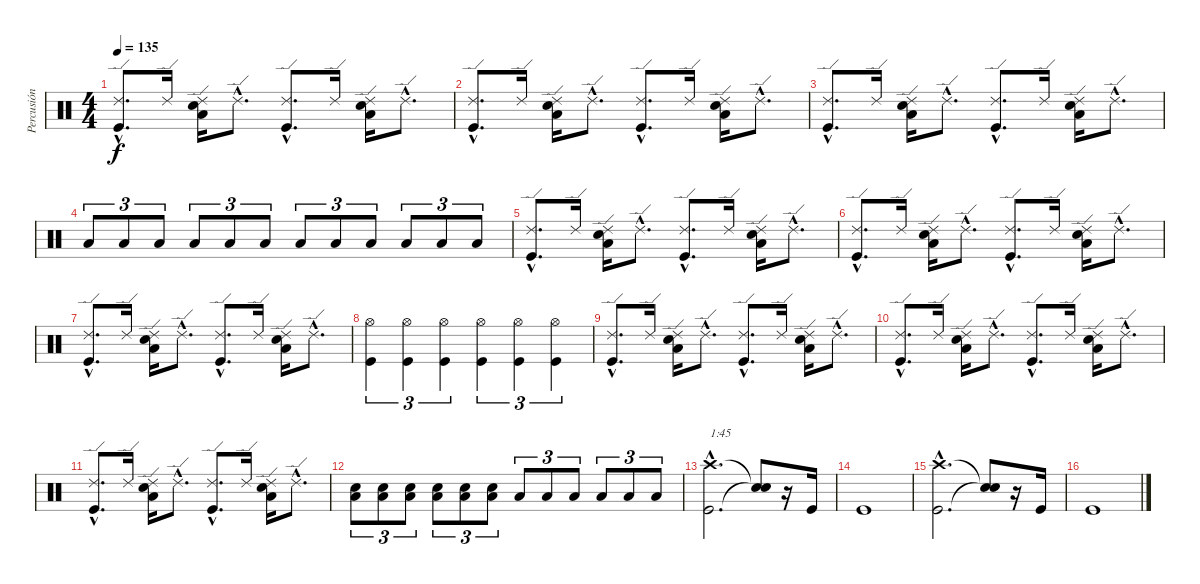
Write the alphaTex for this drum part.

\track ("Percusión" "Percusión") {instrument percussion}
\staff {score}
\articulation defaults
\ts (4 4)
\tempo 135
\clef neutral
\ks c
("Kick (hit)"{hac} "Ride (edge) 2"{hac}).8{d dy f} "Ride (edge) 2".16 ("Snare (hit) 2" "Low Tom (hit)" "Ride (edge) 2").16 "Ride (edge) 2"{hac}.8{d} ("Kick (hit)"{hac} "Ride (edge) 2"{hac}).8{d} "Ride (edge) 2".16 ("Snare (hit) 2" "Low Tom (hit)" "Ride (edge) 2").16 "Ride (edge) 2"{hac}.8{d} |
("Kick (hit)"{hac} "Ride (edge) 2"{hac}).8{d} "Ride (edge) 2".16 ("Snare (hit) 2" "Low Tom (hit)" "Ride (edge) 2").16 "Ride (edge) 2"{hac}.8{d} ("Kick (hit)"{hac} "Ride (edge) 2"{hac}).8{d} "Ride (edge) 2".16 ("Snare (hit) 2" "Low Tom (hit)" "Ride (edge) 2").16 "Ride (edge) 2"{hac}.8{d} |
("Kick (hit)"{hac} "Ride (edge) 2"{hac}).8{d} "Ride (edge) 2".16 ("Snare (hit) 2" "Low Tom (hit)" "Ride (edge) 2").16 "Ride (edge) 2"{hac}.8{d} ("Kick (hit)"{hac} "Ride (edge) 2"{hac}).8{d} "Ride (edge) 2".16 ("Snare (hit) 2" "Low Tom (hit)" "Ride (edge) 2").16 "Ride (edge) 2"{hac}.8{d} |
"Low Tom (hit)".8{tu (3 2)} "Low Tom (hit)".8{tu (3 2)} "Low Tom (hit)".8{tu (3 2)} "Low Tom (hit)".8{tu (3 2)} "Low Tom (hit)".8{tu (3 2)} "Low Tom (hit)".8{tu (3 2)} "Low Tom (hit)".8{tu (3 2)} "Low Tom (hit)".8{tu (3 2)} "Low Tom (hit)".8{tu (3 2)} "Low Tom (hit)".8{tu (3 2)} "Low Tom (hit)".8{tu (3 2)} "Low Tom (hit)".8{tu (3 2)} |
("Kick (hit)"{hac} "Ride (edge) 2"{hac}).8{d} "Ride (edge) 2".16 ("Snare (hit) 2" "Low Tom (hit)" "Ride (edge) 2").16 "Ride (edge) 2"{hac}.8{d} ("Kick (hit)"{hac} "Ride (edge) 2"{hac}).8{d} "Ride (edge) 2".16 ("Snare (hit) 2" "Low Tom (hit)" "Ride (edge) 2").16 "Ride (edge) 2"{hac}.8{d} |
("Kick (hit)"{hac} "Ride (edge) 2"{hac}).8{d} "Ride (edge) 2".16 ("Snare (hit) 2" "Low Tom (hit)" "Ride (edge) 2").16 "Ride (edge) 2"{hac}.8{d} ("Kick (hit)"{hac} "Ride (edge) 2"{hac}).8{d} "Ride (edge) 2".16 ("Snare (hit) 2" "Low Tom (hit)" "Ride (edge) 2").16 "Ride (edge) 2"{hac}.8{d} |
("Kick (hit)"{hac} "Ride (edge) 2"{hac}).8{d} "Ride (edge) 2".16 ("Snare (hit) 2" "Low Tom (hit)" "Ride (edge) 2").16 "Ride (edge) 2"{hac}.8{d} ("Kick (hit)"{hac} "Ride (edge) 2"{hac}).8{d} "Ride (edge) 2".16 ("Snare (hit) 2" "Low Tom (hit)" "Ride (edge) 2").16 "Ride (edge) 2"{hac}.8{d} |
("Kick (hit)" "Hi-Hat (open)").4{tu (3 2)} ("Kick (hit)" "Hi-Hat (open)").4{tu (3 2)} ("Kick (hit)" "Hi-Hat (open)").4{tu (3 2)} ("Kick (hit)" "Hi-Hat (open)").4{tu (3 2)} ("Kick (hit)" "Hi-Hat (open)").4{tu (3 2)} ("Kick (hit)" "Hi-Hat (open)").4{tu (3 2)} |
("Kick (hit)"{hac} "Ride (edge) 2"{hac}).8{d} "Ride (edge) 2".16 ("Snare (hit) 2" "Low Tom (hit)" "Ride (edge) 2").16 "Ride (edge) 2"{hac}.8{d} ("Kick (hit)"{hac} "Ride (edge) 2"{hac}).8{d} "Ride (edge) 2".16 ("Snare (hit) 2" "Low Tom (hit)" "Ride (edge) 2").16 "Ride (edge) 2"{hac}.8{d} |
("Kick (hit)"{hac} "Ride (edge) 2"{hac}).8{d} "Ride (edge) 2".16 ("Snare (hit) 2" "Low Tom (hit)" "Ride (edge) 2").16 "Ride (edge) 2"{hac}.8{d} ("Kick (hit)"{hac} "Ride (edge) 2"{hac}).8{d} "Ride (edge) 2".16 ("Snare (hit) 2" "Low Tom (hit)" "Ride (edge) 2").16 "Ride (edge) 2"{hac}.8{d} |
("Kick (hit)"{hac} "Ride (edge) 2"{hac}).8{d} "Ride (edge) 2".16 ("Snare (hit) 2" "Low Tom (hit)" "Ride (edge) 2").16 "Ride (edge) 2"{hac}.8{d} ("Kick (hit)"{hac} "Ride (edge) 2"{hac}).8{d} "Ride (edge) 2".16 ("Snare (hit) 2" "Low Tom (hit)" "Ride (edge) 2").16 "Ride (edge) 2"{hac}.8{d} |
("Snare (hit) 2" "Low Tom (hit)").8{tu (3 2)} ("Snare (hit) 2" "Low Tom (hit)").8{tu (3 2)} ("Snare (hit) 2" "Low Tom (hit)").8{tu (3 2)} ("Snare (hit) 2" "Low Tom (hit)").8{tu (3 2)} ("Snare (hit) 2" "Low Tom (hit)").8{tu (3 2)} ("Snare (hit) 2" "Low Tom (hit)").8{tu (3 2)} "Low Tom (hit)".8{tu (3 2)} "Low Tom (hit)".8{tu (3 2)} "Low Tom (hit)".8{tu (3 2)} "Low Tom (hit)".8{tu (3 2)} "Low Tom (hit)".8{tu (3 2)} "Low Tom (hit)".8{tu (3 2)} |
("Kick (hit)"{hac} "Crash high (hit)"{hac}).2{d txt "1:45"} ("Snare (hit)"{t} "Snare (hit)"{t}).8 r.16 "Kick (hit)".16 |
"Kick (hit)".1 |
("Kick (hit)"{hac} "Crash high (hit)"{hac}).2{d} ("Snare (hit)"{t} "Snare (hit)"{t}).8 r.16 "Kick (hit)".16 |
"Kick (hit)".1
